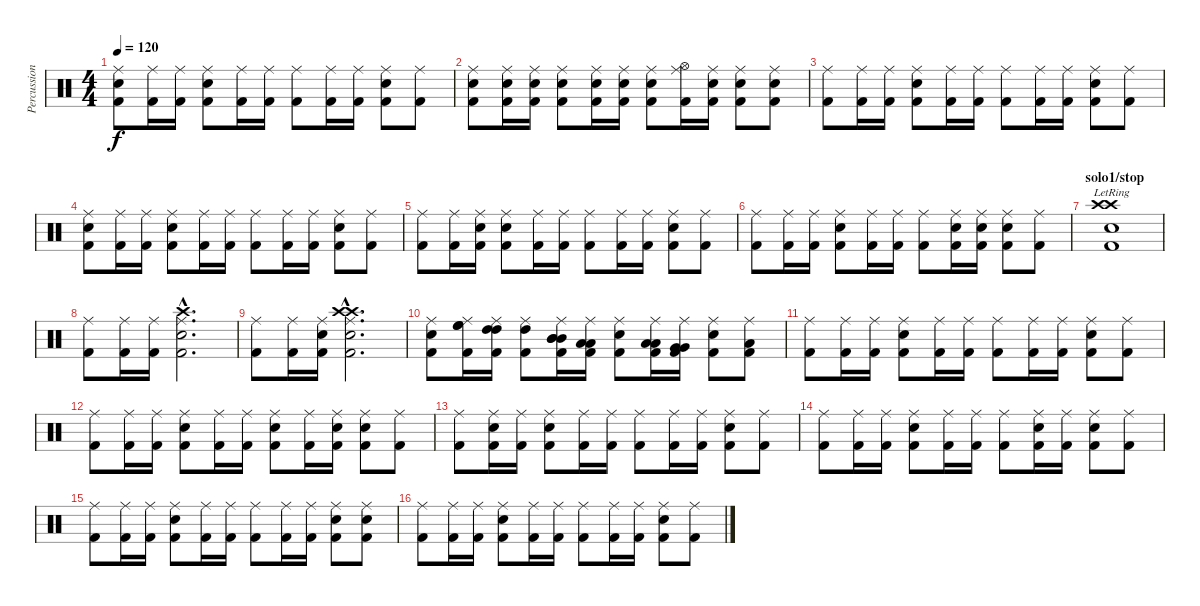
\track ("Percussioni" "Percussion") {instrument percussion}
\staff {score}
\articulation defaults
\ts (4 4)
\tempo 120
\clef neutral
\ks c
("Ride (middle)" "Kick (hit) 2" "Electric Snare (hit)").8{dy f} ("Ride (middle)" "Kick (hit) 2").16 ("Ride (middle)" "Kick (hit) 2").16 ("Ride (middle)" "Kick (hit) 2" "Electric Snare (hit)").8 ("Ride (middle)" "Kick (hit) 2").16 ("Ride (middle)" "Kick (hit) 2").16 ("Ride (middle)" "Kick (hit) 2").8 ("Ride (middle)" "Kick (hit) 2").16 ("Ride (middle)" "Kick (hit) 2").16 ("Ride (middle)" "Kick (hit) 2" "Electric Snare (hit)").8 ("Ride (middle)" "Kick (hit) 2").8 |
("Ride (middle)" "Kick (hit) 2" "Electric Snare (hit)").8 ("Ride (middle)" "Kick (hit) 2" "Electric Snare (hit)").16 ("Ride (middle)" "Kick (hit) 2" "Electric Snare (hit)").16 ("Ride (middle)" "Kick (hit) 2" "Electric Snare (hit)").8 ("Ride (middle)" "Kick (hit) 2" "Electric Snare (hit)").16 ("Ride (middle)" "Kick (hit) 2" "Electric Snare (hit)").16 ("Ride (middle)" "Kick (hit) 2" "Electric Snare (hit)").8 ("Ride (middle)" "Kick (hit) 2" "Hi-Hat (open)").16 ("Ride (middle)" "Kick (hit) 2" "Electric Snare (hit)").16 ("Ride (middle)" "Kick (hit) 2" "Electric Snare (hit)").8 ("Ride (middle)" "Kick (hit) 2" "Electric Snare (hit)").8 |
("Ride (middle)" "Kick (hit) 2").8 ("Ride (middle)" "Kick (hit) 2").16 ("Ride (middle)" "Kick (hit) 2").16 ("Ride (middle)" "Kick (hit) 2" "Electric Snare (hit)").8 ("Ride (middle)" "Kick (hit) 2").16 ("Ride (middle)" "Kick (hit) 2").16 ("Ride (middle)" "Kick (hit) 2").8 ("Ride (middle)" "Kick (hit) 2").16 ("Ride (middle)" "Kick (hit) 2").16 ("Ride (middle)" "Kick (hit) 2" "Electric Snare (hit)").8 ("Ride (middle)" "Kick (hit) 2").8 |
("Ride (middle)" "Kick (hit) 2" "Electric Snare (hit)").8 ("Ride (middle)" "Kick (hit) 2").16 ("Ride (middle)" "Kick (hit) 2").16 ("Ride (middle)" "Kick (hit) 2" "Electric Snare (hit)").8 ("Ride (middle)" "Kick (hit) 2").16 ("Ride (middle)" "Kick (hit) 2").16 ("Ride (middle)" "Kick (hit) 2").8 ("Ride (middle)" "Kick (hit) 2").16 ("Ride (middle)" "Kick (hit) 2").16 ("Ride (middle)" "Kick (hit) 2" "Electric Snare (hit)").8 ("Ride (middle)" "Kick (hit) 2").8 |
("Ride (middle)" "Kick (hit) 2").8 ("Ride (middle)" "Kick (hit) 2").16 ("Ride (middle)" "Kick (hit) 2" "Electric Snare (hit)").16 ("Ride (middle)" "Kick (hit) 2" "Electric Snare (hit)").8 ("Ride (middle)" "Kick (hit) 2").16 ("Ride (middle)" "Kick (hit) 2").16 ("Ride (middle)" "Kick (hit) 2").8 ("Ride (middle)" "Kick (hit) 2").16 ("Ride (middle)" "Kick (hit) 2").16 ("Ride (middle)" "Kick (hit) 2" "Electric Snare (hit)").8 ("Ride (middle)" "Kick (hit) 2").8 |
("Ride (middle)" "Kick (hit) 2").8 ("Ride (middle)" "Kick (hit) 2").16 ("Ride (middle)" "Kick (hit) 2").16 ("Ride (middle)" "Kick (hit) 2" "Electric Snare (hit)").8 ("Ride (middle)" "Kick (hit) 2").16 ("Ride (middle)" "Kick (hit) 2").16 ("Ride (middle)" "Kick (hit) 2").8 ("Ride (middle)" "Kick (hit) 2" "Electric Snare (hit)").16 ("Ride (middle)" "Kick (hit) 2" "Electric Snare (hit)").16 ("Ride (middle)" "Kick (hit) 2" "Electric Snare (hit)").8 ("Ride (middle)" "Kick (hit) 2").8 |
\section ("" "solo1/stop")
("Electric Snare (hit)" "Kick (hit) 2" "Crash high (hit)" "Crash high (hit)"{lr}).1{bu 480} |
("Ride (middle)" "Kick (hit) 2").8 ("Ride (middle)" "Kick (hit) 2").16 ("Ride (middle)" "Kick (hit) 2").16 ("Ride (middle)"{hac} "Kick (hit) 2"{hac} "Electric Snare (hit)"{hac} "Crash high (hit)"{hac}).2{d} |
("Ride (middle)" "Kick (hit) 2").8 ("Ride (middle)" "Kick (hit) 2").16 ("Ride (middle)" "Kick (hit) 2" "Electric Snare (hit)").16 ("Ride (middle)"{hac} "Kick (hit) 2"{hac} "Electric Snare (hit)"{hac} "Crash high (hit)"{hac} "Crash high (hit)"{hac}).2{d} |
("Ride (middle)" "Kick (hit) 2" "Electric Snare (hit)").8 ("Ride (middle)" "Kick (hit) 2" "High Floor Tom (hit)" "High Floor Tom (hit)").16 ("Ride (middle)" "Kick (hit) 2" "High Tom (hit)" "High Tom (hit)").16 ("Ride (middle)" "Kick (hit) 2" "High Tom (hit)").8 ("Ride (middle)" "Kick (hit) 2" "Mid Tom (hit)" "Mid Tom (hit)" "Mid Tom (hit)").16 ("Ride (middle)" "Kick (hit) 2" "Low Tom (hit)" "Low Tom (hit)").16 ("Ride (middle)" "Kick (hit) 2" "Electric Snare (hit)").8 ("Ride (middle)" "Kick (hit) 2" "Low Tom (hit)" "Low Tom (hit)").16 ("Ride (middle)" "Kick (hit) 2" "Very Low Tom (hit)" "Very Low Tom (hit)").16 ("Ride (middle)" "Kick (hit) 2" "Electric Snare (hit)").8 ("Ride (middle)" "Kick (hit) 2" "Low Floor Tom (hit)").8 |
("Ride (middle)" "Kick (hit) 2").8 ("Ride (middle)" "Kick (hit) 2").16 ("Ride (middle)" "Kick (hit) 2").16 ("Ride (middle)" "Kick (hit) 2" "Electric Snare (hit)").8 ("Ride (middle)" "Kick (hit) 2").16 ("Ride (middle)" "Kick (hit) 2").16 ("Ride (middle)" "Kick (hit) 2").8 ("Ride (middle)" "Kick (hit) 2").16 ("Ride (middle)" "Kick (hit) 2").16 ("Ride (middle)" "Kick (hit) 2" "Electric Snare (hit)").8 ("Ride (middle)" "Kick (hit) 2").8 |
("Ride (middle)" "Kick (hit) 2").8 ("Ride (middle)" "Kick (hit) 2").16 ("Ride (middle)" "Kick (hit) 2").16 ("Ride (middle)" "Kick (hit) 2" "Electric Snare (hit)").8 ("Ride (middle)" "Kick (hit) 2").16 ("Ride (middle)" "Kick (hit) 2").16 ("Ride (middle)" "Kick (hit) 2" "Electric Snare (hit)").8 ("Ride (middle)" "Kick (hit) 2").16 ("Ride (middle)" "Kick (hit) 2" "Electric Snare (hit)").16 ("Ride (middle)" "Kick (hit) 2" "Electric Snare (hit)").8 ("Ride (middle)" "Kick (hit) 2").8 |
("Ride (middle)" "Kick (hit) 2").8 ("Ride (middle)" "Kick (hit) 2" "Electric Snare (hit)").16 ("Ride (middle)" "Kick (hit) 2").16 ("Ride (middle)" "Kick (hit) 2" "Electric Snare (hit)").8 ("Ride (middle)" "Kick (hit) 2").16 ("Ride (middle)" "Kick (hit) 2").16 ("Ride (middle)" "Kick (hit) 2").8 ("Ride (middle)" "Kick (hit) 2").16 ("Ride (middle)" "Kick (hit) 2").16 ("Ride (middle)" "Kick (hit) 2" "Electric Snare (hit)").8 ("Ride (middle)" "Kick (hit) 2").8 |
("Ride (middle)" "Kick (hit) 2").8 ("Ride (middle)" "Kick (hit) 2").16 ("Ride (middle)" "Kick (hit) 2").16 ("Ride (middle)" "Kick (hit) 2" "Electric Snare (hit)").8 ("Ride (middle)" "Kick (hit) 2").16 ("Ride (middle)" "Kick (hit) 2").16 ("Ride (middle)" "Kick (hit) 2").8 ("Ride (middle)" "Kick (hit) 2" "Electric Snare (hit)").16 ("Ride (middle)" "Kick (hit) 2").16 ("Ride (middle)" "Kick (hit) 2" "Electric Snare (hit)").8 ("Ride (middle)" "Kick (hit) 2").8 |
("Ride (middle)" "Kick (hit) 2").8 ("Ride (middle)" "Kick (hit) 2").16 ("Ride (middle)" "Kick (hit) 2").16 ("Ride (middle)" "Kick (hit) 2" "Electric Snare (hit)").8 ("Ride (middle)" "Kick (hit) 2").16 ("Ride (middle)" "Kick (hit) 2").16 ("Ride (middle)" "Kick (hit) 2").8 ("Ride (middle)" "Kick (hit) 2").16 ("Ride (middle)" "Kick (hit) 2").16 ("Ride (middle)" "Kick (hit) 2" "Electric Snare (hit)").8 ("Ride (middle)" "Kick (hit) 2" "Electric Snare (hit)").8 |
("Ride (middle)" "Kick (hit) 2").8 ("Ride (middle)" "Kick (hit) 2").16 ("Ride (middle)" "Kick (hit) 2").16 ("Ride (middle)" "Kick (hit) 2" "Electric Snare (hit)").8 ("Ride (middle)" "Kick (hit) 2").16 ("Ride (middle)" "Kick (hit) 2").16 ("Ride (middle)" "Kick (hit) 2").8 ("Ride (middle)" "Kick (hit) 2").16 ("Ride (middle)" "Kick (hit) 2").16 ("Ride (middle)" "Kick (hit) 2" "Electric Snare (hit)").8 ("Ride (middle)" "Kick (hit) 2").8
